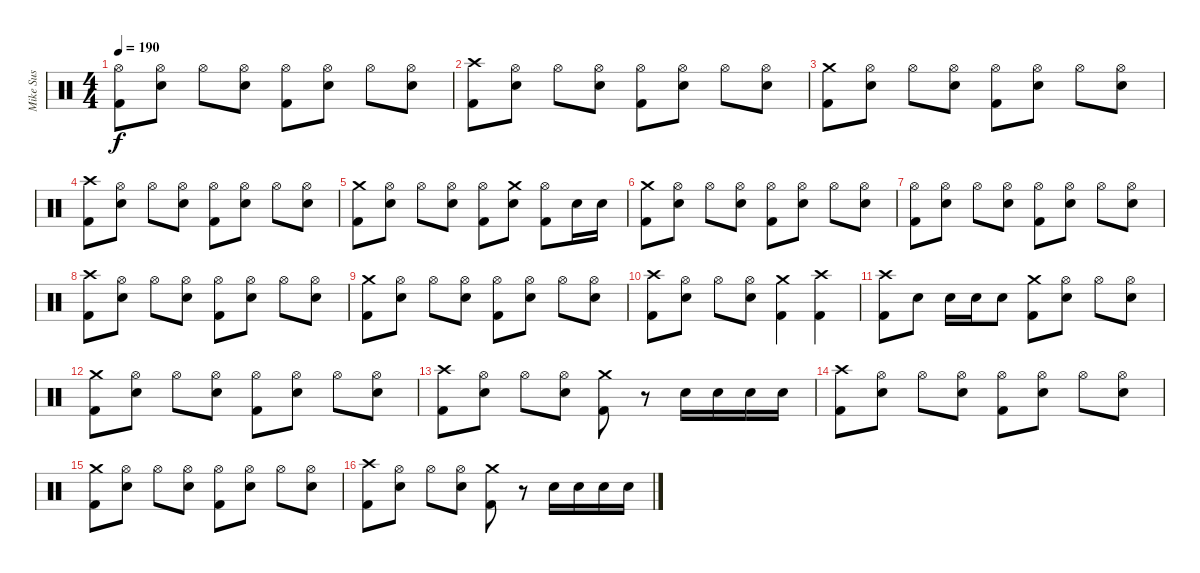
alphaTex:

\track ("Mike Sus" "Mike Sus") {instrument percussion}
\staff {score}
\articulation defaults
\ts (4 4)
\tempo 190
\clef neutral
\ks c
("Hi-Hat (open)" "Kick (hit) 2").8{dy f} ("Hi-Hat (open)" "Electric Snare (hit)").8 "Hi-Hat (open)".8 ("Hi-Hat (open)" "Electric Snare (hit)").8 ("Hi-Hat (open)" "Kick (hit) 2").8 ("Hi-Hat (open)" "Electric Snare (hit)").8 "Hi-Hat (open)".8 ("Hi-Hat (open)" "Electric Snare (hit)").8 |
("Crash high (hit)" "Kick (hit) 2").8 ("Hi-Hat (open)" "Electric Snare (hit)").8 "Hi-Hat (open)".8 ("Hi-Hat (open)" "Electric Snare (hit)").8 ("Hi-Hat (open)" "Kick (hit) 2").8 ("Hi-Hat (open)" "Electric Snare (hit)").8 "Hi-Hat (open)".8 ("Hi-Hat (open)" "Electric Snare (hit)").8 |
("Crash medium (hit)" "Kick (hit) 2").8 ("Hi-Hat (open)" "Electric Snare (hit)").8 "Hi-Hat (open)".8 ("Hi-Hat (open)" "Electric Snare (hit)").8 ("Hi-Hat (open)" "Kick (hit) 2").8 ("Hi-Hat (open)" "Electric Snare (hit)").8 "Hi-Hat (open)".8 ("Hi-Hat (open)" "Electric Snare (hit)").8 |
("Crash high (hit)" "Kick (hit) 2").8 ("Hi-Hat (open)" "Electric Snare (hit)").8 "Hi-Hat (open)".8 ("Hi-Hat (open)" "Electric Snare (hit)").8 ("Hi-Hat (open)" "Kick (hit) 2").8 ("Hi-Hat (open)" "Electric Snare (hit)").8 "Hi-Hat (open)".8 ("Hi-Hat (open)" "Electric Snare (hit)").8 |
("Crash medium (hit)" "Kick (hit) 2").8 ("Hi-Hat (open)" "Electric Snare (hit)").8 "Hi-Hat (open)".8 ("Hi-Hat (open)" "Electric Snare (hit)").8 ("Hi-Hat (open)" "Kick (hit) 2").8 ("Crash medium (hit)" "Electric Snare (hit)").8 ("Hi-Hat (open)" "Kick (hit) 2").8 "Electric Snare (hit)".16 "Electric Snare (hit)".16 |
("Crash medium (hit)" "Kick (hit) 2").8 ("Hi-Hat (open)" "Electric Snare (hit)").8 "Hi-Hat (open)".8 ("Hi-Hat (open)" "Electric Snare (hit)").8 ("Hi-Hat (open)" "Kick (hit) 2").8 ("Hi-Hat (open)" "Electric Snare (hit)").8 "Hi-Hat (open)".8 ("Hi-Hat (open)" "Electric Snare (hit)").8 |
("Hi-Hat (open)" "Kick (hit) 2").8 ("Hi-Hat (open)" "Electric Snare (hit)").8 "Hi-Hat (open)".8 ("Hi-Hat (open)" "Electric Snare (hit)").8 ("Hi-Hat (open)" "Kick (hit) 2").8 ("Hi-Hat (open)" "Electric Snare (hit)").8 "Hi-Hat (open)".8 ("Hi-Hat (open)" "Electric Snare (hit)").8 |
("Crash high (hit)" "Kick (hit) 2").8 ("Hi-Hat (open)" "Electric Snare (hit)").8 "Hi-Hat (open)".8 ("Hi-Hat (open)" "Electric Snare (hit)").8 ("Hi-Hat (open)" "Kick (hit) 2").8 ("Hi-Hat (open)" "Electric Snare (hit)").8 "Hi-Hat (open)".8 ("Hi-Hat (open)" "Electric Snare (hit)").8 |
("Crash medium (hit)" "Kick (hit) 2").8 ("Hi-Hat (open)" "Electric Snare (hit)").8 "Hi-Hat (open)".8 ("Hi-Hat (open)" "Electric Snare (hit)").8 ("Hi-Hat (open)" "Kick (hit) 2").8 ("Hi-Hat (open)" "Electric Snare (hit)").8 "Hi-Hat (open)".8 ("Hi-Hat (open)" "Electric Snare (hit)").8 |
("Crash high (hit)" "Kick (hit) 2").8 ("Hi-Hat (open)" "Electric Snare (hit)").8 "Hi-Hat (open)".8 ("Hi-Hat (open)" "Electric Snare (hit)").8 ("Crash medium (hit)" "Kick (hit) 2").4 ("Crash high (hit)" "Kick (hit) 2").4 |
("Crash high (hit)" "Kick (hit) 2").8 "Electric Snare (hit)".8 "Electric Snare (hit)".16 "Electric Snare (hit)".16 "Electric Snare (hit)".8 ("Crash medium (hit)" "Kick (hit) 2").8 ("Hi-Hat (open)" "Electric Snare (hit)").8 "Hi-Hat (open)".8 ("Hi-Hat (open)" "Electric Snare (hit)").8 |
("Crash medium (hit)" "Kick (hit) 2").8 ("Hi-Hat (open)" "Electric Snare (hit)").8 "Hi-Hat (open)".8 ("Hi-Hat (open)" "Electric Snare (hit)").8 ("Hi-Hat (open)" "Kick (hit) 2").8 ("Hi-Hat (open)" "Electric Snare (hit)").8 "Hi-Hat (open)".8 ("Hi-Hat (open)" "Electric Snare (hit)").8 |
("Crash high (hit)" "Kick (hit) 2").8 ("Hi-Hat (open)" "Electric Snare (hit)").8 "Hi-Hat (open)".8 ("Hi-Hat (open)" "Electric Snare (hit)").8 ("Crash medium (hit)" "Kick (hit) 2").8 r.8 "Electric Snare (hit)".16 "Electric Snare (hit)".16 "Electric Snare (hit)".16 "Electric Snare (hit)".16 |
("Crash high (hit)" "Kick (hit) 2").8 ("Hi-Hat (open)" "Electric Snare (hit)").8 "Hi-Hat (open)".8 ("Hi-Hat (open)" "Electric Snare (hit)").8 ("Hi-Hat (open)" "Kick (hit) 2").8 ("Hi-Hat (open)" "Electric Snare (hit)").8 "Hi-Hat (open)".8 ("Hi-Hat (open)" "Electric Snare (hit)").8 |
("Crash medium (hit)" "Kick (hit) 2").8 ("Hi-Hat (open)" "Electric Snare (hit)").8 "Hi-Hat (open)".8 ("Hi-Hat (open)" "Electric Snare (hit)").8 ("Hi-Hat (open)" "Kick (hit) 2").8 ("Hi-Hat (open)" "Electric Snare (hit)").8 "Hi-Hat (open)".8 ("Hi-Hat (open)" "Electric Snare (hit)").8 |
("Crash high (hit)" "Kick (hit) 2").8 ("Hi-Hat (open)" "Electric Snare (hit)").8 "Hi-Hat (open)".8 ("Hi-Hat (open)" "Electric Snare (hit)").8 ("Crash medium (hit)" "Kick (hit) 2").8 r.8 "Electric Snare (hit)".16 "Electric Snare (hit)".16 "Electric Snare (hit)".16 "Electric Snare (hit)".16
